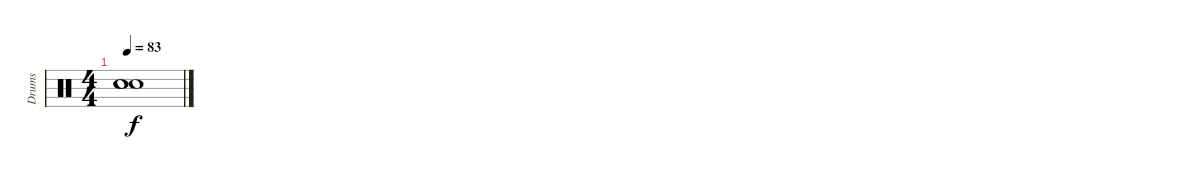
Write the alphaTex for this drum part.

\track ("Drums" "Drums") {instrument percussion}
\staff {score}
\articulation defaults
\ts (4 4)
\tempo 83
\clef neutral
\ks c
("Snare (hit)"{t} "Snare (hit)"{t} "Snare (hit)"{t}).1{dy f}
